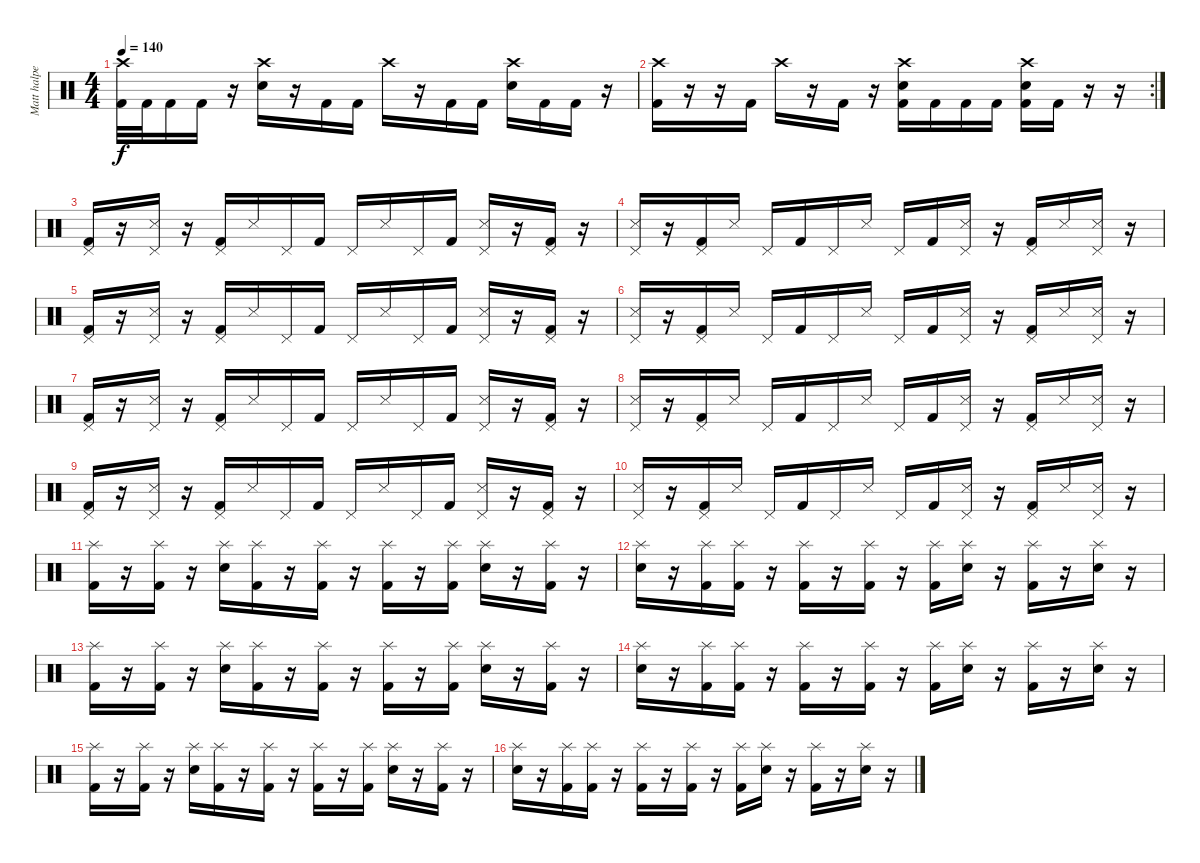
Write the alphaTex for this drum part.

\track ("Matt halpern" "Matt halpe") {instrument percussion}
\staff {score}
\articulation defaults
\ts (4 4)
\tempo 140
\clef neutral
\ks c
("Crash high (hit)" "Kick (hit) 2").32{dy f} "Kick (hit) 2".32 "Kick (hit) 2".16 "Kick (hit) 2".16 r.16 ("Crash high (hit)" "Electric Snare (hit)").16 r.16 "Kick (hit) 2".16 "Kick (hit) 2".16 "Crash high (hit)".16 r.16 "Kick (hit) 2".16 "Kick (hit) 2".16 ("Crash high (hit)" "Electric Snare (hit)").16 "Kick (hit) 2".16 "Kick (hit) 2".16 r.16 |
\rc 2
("Crash high (hit)" "Kick (hit) 2").16 r.16 r.16 "Kick (hit) 2".16 "Crash high (hit)".16 r.16 "Kick (hit) 2".16 r.16 ("Crash high (hit)" "Electric Snare (hit)" "Kick (hit) 2").16 "Kick (hit) 2".16 "Kick (hit) 2".16 "Kick (hit) 2".16 ("Crash high (hit)" "Electric Snare (hit)" "Kick (hit) 2").16 "Kick (hit) 2".16 r.16 r.16 |
("Pedal Hi-Hat (hit)" "Kick (hit) 2").16 r.16 ("Pedal Hi-Hat (hit)" "Snare (side stick) 3").16 r.16 ("Pedal Hi-Hat (hit)" "Kick (hit) 2").16 "Snare (side stick) 3".16 "Pedal Hi-Hat (hit)".16 "Kick (hit) 2".16 "Pedal Hi-Hat (hit)".16 "Snare (side stick) 3".16 "Pedal Hi-Hat (hit)".16 "Kick (hit) 2".16 ("Pedal Hi-Hat (hit)" "Snare (side stick) 3").16 r.16 ("Pedal Hi-Hat (hit)" "Kick (hit) 2").16 r.16 |
("Pedal Hi-Hat (hit)" "Snare (side stick) 3").16 r.16 ("Pedal Hi-Hat (hit)" "Kick (hit) 2").16 "Snare (side stick) 3".16 "Pedal Hi-Hat (hit)".16 "Kick (hit) 2".16 "Pedal Hi-Hat (hit)".16 "Snare (side stick) 3".16 "Pedal Hi-Hat (hit)".16 "Kick (hit) 2".16 ("Pedal Hi-Hat (hit)" "Snare (side stick) 3").16 r.16 ("Pedal Hi-Hat (hit)" "Kick (hit) 2").16 "Snare (side stick) 3".16 ("Pedal Hi-Hat (hit)" "Snare (side stick) 3").16 r.16 |
("Pedal Hi-Hat (hit)" "Kick (hit) 2").16 r.16 ("Pedal Hi-Hat (hit)" "Snare (side stick) 3").16 r.16 ("Pedal Hi-Hat (hit)" "Kick (hit) 2").16 "Snare (side stick) 3".16 "Pedal Hi-Hat (hit)".16 "Kick (hit) 2".16 "Pedal Hi-Hat (hit)".16 "Snare (side stick) 3".16 "Pedal Hi-Hat (hit)".16 "Kick (hit) 2".16 ("Pedal Hi-Hat (hit)" "Snare (side stick) 3").16 r.16 ("Pedal Hi-Hat (hit)" "Kick (hit) 2").16 r.16 |
("Pedal Hi-Hat (hit)" "Snare (side stick) 3").16 r.16 ("Pedal Hi-Hat (hit)" "Kick (hit) 2").16 "Snare (side stick) 3".16 "Pedal Hi-Hat (hit)".16 "Kick (hit) 2".16 "Pedal Hi-Hat (hit)".16 "Snare (side stick) 3".16 "Pedal Hi-Hat (hit)".16 "Kick (hit) 2".16 ("Pedal Hi-Hat (hit)" "Snare (side stick) 3").16 r.16 ("Pedal Hi-Hat (hit)" "Kick (hit) 2").16 "Snare (side stick) 3".16 ("Pedal Hi-Hat (hit)" "Snare (side stick) 3").16 r.16 |
("Pedal Hi-Hat (hit)" "Kick (hit) 2").16 r.16 ("Pedal Hi-Hat (hit)" "Snare (side stick) 3").16 r.16 ("Pedal Hi-Hat (hit)" "Kick (hit) 2").16 "Snare (side stick) 3".16 "Pedal Hi-Hat (hit)".16 "Kick (hit) 2".16 "Pedal Hi-Hat (hit)".16 "Snare (side stick) 3".16 "Pedal Hi-Hat (hit)".16 "Kick (hit) 2".16 ("Pedal Hi-Hat (hit)" "Snare (side stick) 3").16 r.16 ("Pedal Hi-Hat (hit)" "Kick (hit) 2").16 r.16 |
("Pedal Hi-Hat (hit)" "Snare (side stick) 3").16 r.16 ("Pedal Hi-Hat (hit)" "Kick (hit) 2").16 "Snare (side stick) 3".16 "Pedal Hi-Hat (hit)".16 "Kick (hit) 2".16 "Pedal Hi-Hat (hit)".16 "Snare (side stick) 3".16 "Pedal Hi-Hat (hit)".16 "Kick (hit) 2".16 ("Pedal Hi-Hat (hit)" "Snare (side stick) 3").16 r.16 ("Pedal Hi-Hat (hit)" "Kick (hit) 2").16 "Snare (side stick) 3".16 ("Pedal Hi-Hat (hit)" "Snare (side stick) 3").16 r.16 |
("Pedal Hi-Hat (hit)" "Kick (hit) 2").16 r.16 ("Pedal Hi-Hat (hit)" "Snare (side stick) 3").16 r.16 ("Pedal Hi-Hat (hit)" "Kick (hit) 2").16 "Snare (side stick) 3".16 "Pedal Hi-Hat (hit)".16 "Kick (hit) 2".16 "Pedal Hi-Hat (hit)".16 "Snare (side stick) 3".16 "Pedal Hi-Hat (hit)".16 "Kick (hit) 2".16 ("Pedal Hi-Hat (hit)" "Snare (side stick) 3").16 r.16 ("Pedal Hi-Hat (hit)" "Kick (hit) 2").16 r.16 |
("Pedal Hi-Hat (hit)" "Snare (side stick) 3").16 r.16 ("Pedal Hi-Hat (hit)" "Kick (hit) 2").16 "Snare (side stick) 3".16 "Pedal Hi-Hat (hit)".16 "Kick (hit) 2".16 "Pedal Hi-Hat (hit)".16 "Snare (side stick) 3".16 "Pedal Hi-Hat (hit)".16 "Kick (hit) 2".16 ("Pedal Hi-Hat (hit)" "Snare (side stick) 3").16 r.16 ("Pedal Hi-Hat (hit)" "Kick (hit) 2").16 "Snare (side stick) 3".16 ("Pedal Hi-Hat (hit)" "Snare (side stick) 3").16 r.16 |
("Splash (hit)" "Kick (hit) 2").16 r.16 ("Splash (hit)" "Kick (hit) 2").16 r.16 ("Splash (hit)" "Electric Snare (hit)").16 ("Splash (hit)" "Kick (hit) 2").16 r.16 ("Splash (hit)" "Kick (hit) 2").16 r.16 ("Splash (hit)" "Kick (hit) 2").16 r.16 ("Splash (hit)" "Kick (hit) 2").16 ("Splash (hit)" "Electric Snare (hit)").16 r.16 ("Splash (hit)" "Kick (hit) 2").16 r.16 |
("Splash (hit)" "Electric Snare (hit)").16 r.16 ("Splash (hit)" "Kick (hit) 2").16 ("Splash (hit)" "Kick (hit) 2").16 r.16 ("Splash (hit)" "Kick (hit) 2").16 r.16 ("Splash (hit)" "Kick (hit) 2").16 r.16 ("Splash (hit)" "Kick (hit) 2").16 ("Splash (hit)" "Electric Snare (hit)").16 r.16 ("Splash (hit)" "Kick (hit) 2").16 r.16 ("Splash (hit)" "Electric Snare (hit)").16 r.16 |
("Splash (hit)" "Kick (hit) 2").16 r.16 ("Splash (hit)" "Kick (hit) 2").16 r.16 ("Splash (hit)" "Electric Snare (hit)").16 ("Splash (hit)" "Kick (hit) 2").16 r.16 ("Splash (hit)" "Kick (hit) 2").16 r.16 ("Splash (hit)" "Kick (hit) 2").16 r.16 ("Splash (hit)" "Kick (hit) 2").16 ("Splash (hit)" "Electric Snare (hit)").16 r.16 ("Splash (hit)" "Kick (hit) 2").16 r.16 |
("Splash (hit)" "Electric Snare (hit)").16 r.16 ("Splash (hit)" "Kick (hit) 2").16 ("Splash (hit)" "Kick (hit) 2").16 r.16 ("Splash (hit)" "Kick (hit) 2").16 r.16 ("Splash (hit)" "Kick (hit) 2").16 r.16 ("Splash (hit)" "Kick (hit) 2").16 ("Splash (hit)" "Electric Snare (hit)").16 r.16 ("Splash (hit)" "Kick (hit) 2").16 r.16 ("Splash (hit)" "Electric Snare (hit)").16 r.16 |
("Splash (hit)" "Kick (hit) 2").16 r.16 ("Splash (hit)" "Kick (hit) 2").16 r.16 ("Splash (hit)" "Electric Snare (hit)").16 ("Splash (hit)" "Kick (hit) 2").16 r.16 ("Splash (hit)" "Kick (hit) 2").16 r.16 ("Splash (hit)" "Kick (hit) 2").16 r.16 ("Splash (hit)" "Kick (hit) 2").16 ("Splash (hit)" "Electric Snare (hit)").16 r.16 ("Splash (hit)" "Kick (hit) 2").16 r.16 |
("Splash (hit)" "Electric Snare (hit)").16 r.16 ("Splash (hit)" "Kick (hit) 2").16 ("Splash (hit)" "Kick (hit) 2").16 r.16 ("Splash (hit)" "Kick (hit) 2").16 r.16 ("Splash (hit)" "Kick (hit) 2").16 r.16 ("Splash (hit)" "Kick (hit) 2").16 ("Splash (hit)" "Electric Snare (hit)").16 r.16 ("Splash (hit)" "Kick (hit) 2").16 r.16 ("Splash (hit)" "Electric Snare (hit)").16 r.16
